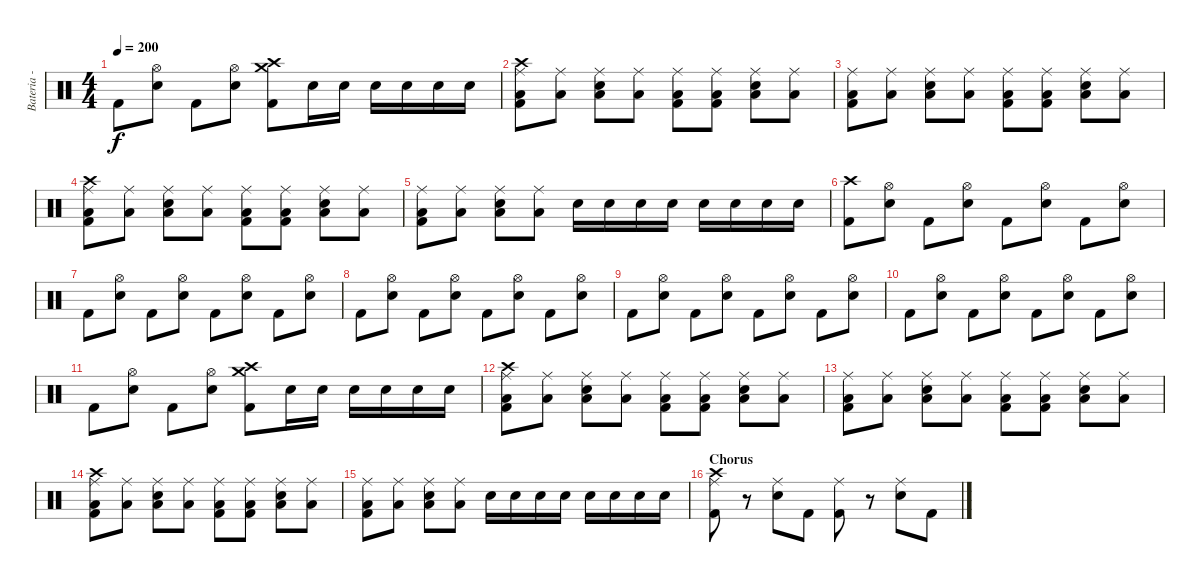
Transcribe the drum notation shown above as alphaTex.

\track ("Bateria - Larzon" "Bateria - ") {instrument percussion}
\staff {score}
\articulation defaults
\ts (4 4)
\tempo 200
\clef neutral
\ks c "Kick (hit) 2".8{dy f}
("Hi-Hat (open)" "Electric Snare (hit)").8 "Kick (hit) 2".8 ("Hi-Hat (open)" "Electric Snare (hit)").8 ("Kick (hit) 2" "Crash high (hit)" "Crash medium (hit)").8 "Electric Snare (hit)".16 "Electric Snare (hit)".16 "Electric Snare (hit)".16 "Electric Snare (hit)".16 "Electric Snare (hit)".16 "Electric Snare (hit)".16 |
("Low Floor Tom (hit)" "Kick (hit) 2" "Crash high (hit)" "Ride (middle)").8 ("Low Floor Tom (hit)" "Ride (middle)").8 ("Low Floor Tom (hit)" "Electric Snare (hit)" "Ride (middle)").8 ("Low Floor Tom (hit)" "Ride (middle)").8 ("Low Floor Tom (hit)" "Kick (hit) 2" "Ride (middle)").8 ("Low Floor Tom (hit)" "Kick (hit) 2" "Ride (middle)").8 ("Low Floor Tom (hit)" "Electric Snare (hit)" "Ride (middle)").8 ("Low Floor Tom (hit)" "Ride (middle)").8 |
("Low Floor Tom (hit)" "Kick (hit) 2" "Ride (middle)").8 ("Low Floor Tom (hit)" "Ride (middle)").8 ("Low Floor Tom (hit)" "Electric Snare (hit)" "Ride (middle)").8 ("Low Floor Tom (hit)" "Ride (middle)").8 ("Low Floor Tom (hit)" "Kick (hit) 2" "Ride (middle)").8 ("Low Floor Tom (hit)" "Kick (hit) 2" "Ride (middle)").8 ("Low Floor Tom (hit)" "Electric Snare (hit)" "Ride (middle)").8 ("Low Floor Tom (hit)" "Ride (middle)").8 |
("Low Floor Tom (hit)" "Kick (hit) 2" "Crash high (hit)" "Ride (middle)").8 ("Low Floor Tom (hit)" "Ride (middle)").8 ("Low Floor Tom (hit)" "Electric Snare (hit)" "Ride (middle)").8 ("Low Floor Tom (hit)" "Ride (middle)").8 ("Low Floor Tom (hit)" "Kick (hit) 2" "Ride (middle)").8 ("Low Floor Tom (hit)" "Kick (hit) 2" "Ride (middle)").8 ("Low Floor Tom (hit)" "Electric Snare (hit)" "Ride (middle)").8 ("Low Floor Tom (hit)" "Ride (middle)").8 |
("Low Floor Tom (hit)" "Kick (hit) 2" "Ride (middle)").8 ("Low Floor Tom (hit)" "Ride (middle)").8 ("Low Floor Tom (hit)" "Electric Snare (hit)" "Ride (middle)").8 ("Low Floor Tom (hit)" "Ride (middle)").8 "Electric Snare (hit)".16 "Electric Snare (hit)".16 "Electric Snare (hit)".16 "Electric Snare (hit)".16 "Electric Snare (hit)".16 "Electric Snare (hit)".16 "Electric Snare (hit)".16 "Electric Snare (hit)".16 |
("Kick (hit) 2" "Crash high (hit)").8 ("Electric Snare (hit)" "Hi-Hat (open)").8 "Kick (hit) 2".8 ("Electric Snare (hit)" "Hi-Hat (open)").8 "Kick (hit) 2".8 ("Electric Snare (hit)" "Hi-Hat (open)").8 "Kick (hit) 2".8 ("Electric Snare (hit)" "Hi-Hat (open)").8 |
"Kick (hit) 2".8 ("Hi-Hat (open)" "Electric Snare (hit)").8 "Kick (hit) 2".8 ("Hi-Hat (open)" "Electric Snare (hit)").8 "Kick (hit) 2".8 ("Hi-Hat (open)" "Electric Snare (hit)").8 "Kick (hit) 2".8 ("Hi-Hat (open)" "Electric Snare (hit)").8 |
"Kick (hit) 2".8 ("Hi-Hat (open)" "Electric Snare (hit)").8 "Kick (hit) 2".8 ("Hi-Hat (open)" "Electric Snare (hit)").8 "Kick (hit) 2".8 ("Hi-Hat (open)" "Electric Snare (hit)").8 "Kick (hit) 2".8 ("Hi-Hat (open)" "Electric Snare (hit)").8 |
"Kick (hit) 2".8 ("Hi-Hat (open)" "Electric Snare (hit)").8 "Kick (hit) 2".8 ("Hi-Hat (open)" "Electric Snare (hit)").8 "Kick (hit) 2".8 ("Hi-Hat (open)" "Electric Snare (hit)").8 "Kick (hit) 2".8 ("Hi-Hat (open)" "Electric Snare (hit)").8 |
"Kick (hit) 2".8 ("Hi-Hat (open)" "Electric Snare (hit)").8 "Kick (hit) 2".8 ("Hi-Hat (open)" "Electric Snare (hit)").8 "Kick (hit) 2".8 ("Hi-Hat (open)" "Electric Snare (hit)").8 "Kick (hit) 2".8 ("Hi-Hat (open)" "Electric Snare (hit)").8 |
"Kick (hit) 2".8 ("Hi-Hat (open)" "Electric Snare (hit)").8 "Kick (hit) 2".8 ("Hi-Hat (open)" "Electric Snare (hit)").8 ("Kick (hit) 2" "Crash high (hit)" "Crash medium (hit)").8 "Electric Snare (hit)".16 "Electric Snare (hit)".16 "Electric Snare (hit)".16 "Electric Snare (hit)".16 "Electric Snare (hit)".16 "Electric Snare (hit)".16 |
("Low Floor Tom (hit)" "Kick (hit) 2" "Crash high (hit)" "Ride (middle)").8 ("Low Floor Tom (hit)" "Ride (middle)").8 ("Low Floor Tom (hit)" "Electric Snare (hit)" "Ride (middle)").8 ("Low Floor Tom (hit)" "Ride (middle)").8 ("Low Floor Tom (hit)" "Kick (hit) 2" "Ride (middle)").8 ("Low Floor Tom (hit)" "Kick (hit) 2" "Ride (middle)").8 ("Low Floor Tom (hit)" "Electric Snare (hit)" "Ride (middle)").8 ("Low Floor Tom (hit)" "Ride (middle)").8 |
("Low Floor Tom (hit)" "Kick (hit) 2" "Ride (middle)").8 ("Low Floor Tom (hit)" "Ride (middle)").8 ("Low Floor Tom (hit)" "Electric Snare (hit)" "Ride (middle)").8 ("Low Floor Tom (hit)" "Ride (middle)").8 ("Low Floor Tom (hit)" "Kick (hit) 2" "Ride (middle)").8 ("Low Floor Tom (hit)" "Kick (hit) 2" "Ride (middle)").8 ("Low Floor Tom (hit)" "Electric Snare (hit)" "Ride (middle)").8 ("Low Floor Tom (hit)" "Ride (middle)").8 |
("Low Floor Tom (hit)" "Kick (hit) 2" "Crash high (hit)" "Ride (middle)").8 ("Low Floor Tom (hit)" "Ride (middle)").8 ("Low Floor Tom (hit)" "Electric Snare (hit)" "Ride (middle)").8 ("Low Floor Tom (hit)" "Ride (middle)").8 ("Low Floor Tom (hit)" "Kick (hit) 2" "Ride (middle)").8 ("Low Floor Tom (hit)" "Kick (hit) 2" "Ride (middle)").8 ("Low Floor Tom (hit)" "Electric Snare (hit)" "Ride (middle)").8 ("Low Floor Tom (hit)" "Ride (middle)").8 |
("Low Floor Tom (hit)" "Kick (hit) 2" "Ride (middle)").8 ("Low Floor Tom (hit)" "Ride (middle)").8 ("Low Floor Tom (hit)" "Electric Snare (hit)" "Ride (middle)").8 ("Low Floor Tom (hit)" "Ride (middle)").8 "Electric Snare (hit)".16 "Electric Snare (hit)".16 "Electric Snare (hit)".16 "Electric Snare (hit)".16 "Electric Snare (hit)".16 "Electric Snare (hit)".16 "Electric Snare (hit)".16 "Electric Snare (hit)".16 |
\section ("" "Chorus")
("Kick (hit) 2" "Ride (middle)" "Crash high (hit)").8 r.8 ("Electric Snare (hit)" "Ride (middle)").8 "Kick (hit) 2".8 ("Kick (hit) 2" "Ride (middle)").8 r.8 ("Electric Snare (hit)" "Ride (middle)").8 "Kick (hit) 2".8
